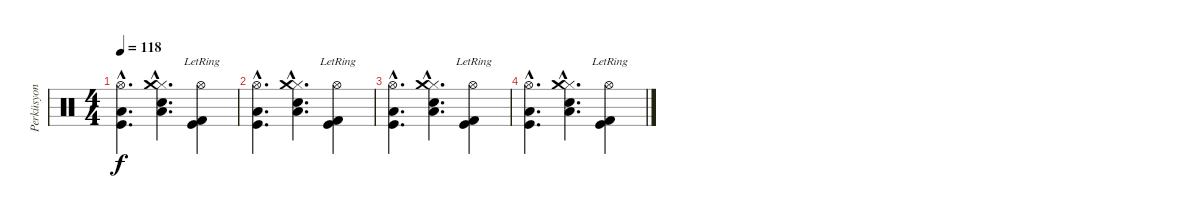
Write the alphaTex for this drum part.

\track ("Perküsyon" "Perküsyon") {instrument percussion}
\staff {score}
\articulation defaults
\ts (4 4)
\tempo 118
\clef neutral
\ks c
("Hi-Hat (open)"{hac} "Low Tom (hit)"{hac} "Kick (hit)"{hac}).4{d dy f} ("Low Floor Tom (hit)"{hac} "Hi-Hat (closed)"{hac} "Snare (hit)"{hac} "Crash medium (hit)"{hac}).4{d} ("Hi-Hat (open)"{lr} "Kick (hit) 2" "Kick (hit)").4 |
("Hi-Hat (open)"{hac} "Low Tom (hit)"{hac} "Kick (hit)"{hac}).4{d} ("Low Floor Tom (hit)"{hac} "Hi-Hat (closed)"{hac} "Snare (hit)"{hac} "Crash medium (hit)"{hac}).4{d} ("Hi-Hat (open)"{lr} "Kick (hit) 2" "Kick (hit)").4 |
("Hi-Hat (open)"{hac} "Low Tom (hit)"{hac} "Kick (hit)"{hac}).4{d} ("Low Floor Tom (hit)"{hac} "Hi-Hat (closed)"{hac} "Snare (hit)"{hac} "Crash medium (hit)"{hac}).4{d} ("Hi-Hat (open)"{lr} "Kick (hit) 2" "Kick (hit)").4 |
("Hi-Hat (open)"{hac} "Low Tom (hit)"{hac} "Kick (hit)"{hac}).4{d} ("Low Floor Tom (hit)"{hac} "Hi-Hat (closed)"{hac} "Snare (hit)"{hac} "Crash medium (hit)"{hac}).4{d} ("Hi-Hat (open)"{lr} "Kick (hit) 2" "Kick (hit)").4
